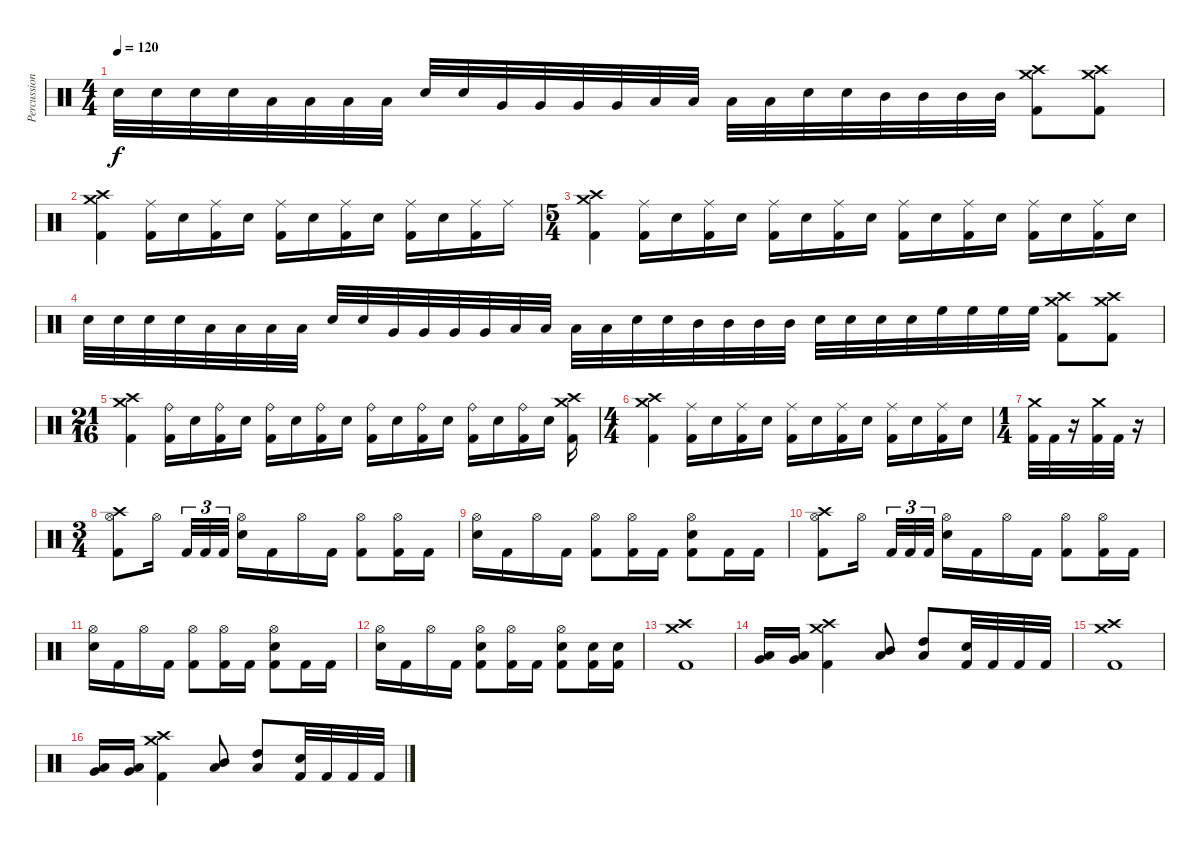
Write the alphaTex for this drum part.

\track ("Percussion" "Percussion") {instrument percussion}
\staff {score}
\articulation defaults
\ts (4 4)
\tempo 120
\clef neutral
\ks c "Electric Snare (hit)".32{dy f} "Electric Snare (hit)".32 "Electric Snare (hit)".32 "Electric Snare (hit)".32 "Low Floor Tom (hit)".32 "Low Floor Tom (hit)".32 "Low Floor Tom (hit)".32 "Low Floor Tom (hit)".32 "Electric Snare (hit)".32 "Electric Snare (hit)".32 "Very Low Tom (hit)".32 "Very Low Tom (hit)".32 "Very Low Tom (hit)".32 "Very Low Tom (hit)".32 "Low Tom (hit)".32 "Low Tom (hit)".32 "Low Tom (hit)".32 "Low Tom (hit)".32 "Electric Snare (hit)".32 "Electric Snare (hit)".32 "Mid Tom (hit)".32 "Mid Tom (hit)".32 "Mid Tom (hit)".32 "Mid Tom (hit)".32
("Kick (hit) 2" "Crash high (hit)" "Crash medium (hit)").8 ("Kick (hit) 2" "Crash high (hit)" "Crash medium (hit)").8 |
("Kick (hit) 2" "Crash high (hit)" "Crash medium (hit)").4 ("Kick (hit) 2" "Ride (middle)").16 "Electric Snare (hit)".16 ("Kick (hit) 2" "Ride (middle)").16 "Electric Snare (hit)".16 ("Kick (hit) 2" "Ride (middle)").16 "Electric Snare (hit)".16 ("Kick (hit) 2" "Ride (middle)").16 "Electric Snare (hit)".16 ("Kick (hit) 2" "Ride (middle)").16 "Electric Snare (hit)".16 ("Kick (hit) 2" "Ride (middle)").16 "Ride (middle)".16 |
\ts (5 4)
("Kick (hit) 2" "Crash high (hit)" "Crash medium (hit)").4 ("Kick (hit) 2" "Ride (middle)").16 "Electric Snare (hit)".16 ("Kick (hit) 2" "Ride (middle)").16 "Electric Snare (hit)".16 ("Kick (hit) 2" "Ride (middle)").16 "Electric Snare (hit)".16 ("Kick (hit) 2" "Ride (middle)").16 "Electric Snare (hit)".16 ("Kick (hit) 2" "Ride (middle)").16 "Electric Snare (hit)".16 ("Kick (hit) 2" "Ride (middle)").16 "Electric Snare (hit)".16 ("Kick (hit) 2" "Ride (middle)").16 "Electric Snare (hit)".16 ("Kick (hit) 2" "Ride (middle)").16 "Electric Snare (hit)".16 |
"Electric Snare (hit)".32 "Electric Snare (hit)".32 "Electric Snare (hit)".32 "Electric Snare (hit)".32 "Low Floor Tom (hit)".32 "Low Floor Tom (hit)".32 "Low Floor Tom (hit)".32 "Low Floor Tom (hit)".32 "Electric Snare (hit)".32 "Electric Snare (hit)".32 "Very Low Tom (hit)".32 "Very Low Tom (hit)".32 "Very Low Tom (hit)".32 "Very Low Tom (hit)".32 "Low Tom (hit)".32 "Low Tom (hit)".32 "Low Tom (hit)".32 "Low Tom (hit)".32 "Electric Snare (hit)".32 "Electric Snare (hit)".32 "Mid Tom (hit)".32 "Mid Tom (hit)".32 "Mid Tom (hit)".32 "Mid Tom (hit)".32 "Electric Snare (hit)".32 "Electric Snare (hit)".32 "Electric Snare (hit)".32 "Electric Snare (hit)".32 "High Floor Tom (hit)".32 "High Floor Tom (hit)".32 "High Floor Tom (hit)".32 "High Floor Tom (hit)".32 ("Kick (hit) 2" "Crash high (hit)" "Crash medium (hit)").8 ("Kick (hit) 2" "Crash medium (hit)" "Crash high (hit)").8 |
\ts (21 16)
("Kick (hit) 2" "Crash high (hit)" "Crash medium (hit)").4 ("Kick (hit) 2" "Ride (bell)").16 "Electric Snare (hit)".16 ("Kick (hit) 2" "Ride (bell)").16 "Electric Snare (hit)".16 ("Kick (hit) 2" "Ride (bell)").16 "Electric Snare (hit)".16 ("Kick (hit) 2" "Ride (bell)").16 "Electric Snare (hit)".16 ("Kick (hit) 2" "Ride (bell)").16 "Electric Snare (hit)".16 ("Kick (hit) 2" "Ride (bell)").16 "Electric Snare (hit)".16 ("Kick (hit) 2" "Ride (bell)").16 "Electric Snare (hit)".16 ("Kick (hit) 2" "Ride (bell)").16 "Electric Snare (hit)".16 ("Kick (hit) 2" "Crash high (hit)" "Crash medium (hit)").16 |
\ts (4 4)
("Kick (hit) 2" "Crash high (hit)" "Crash medium (hit)").4 ("Kick (hit) 2" "Ride (middle)").16 "Electric Snare (hit)".16 ("Kick (hit) 2" "Ride (middle)").16 "Electric Snare (hit)".16 ("Kick (hit) 2" "Ride (middle)").16 "Electric Snare (hit)".16 ("Kick (hit) 2" "Ride (middle)").16 "Electric Snare (hit)".16 ("Kick (hit) 2" "Ride (middle)").16 "Electric Snare (hit)".16 ("Kick (hit) 2" "Ride (middle)").16 "Electric Snare (hit)".16 |
\ts (1 4)
("Kick (hit) 2" "Crash medium (hit)").32 "Kick (hit) 2".32 r.16 ("Kick (hit) 2" "Crash medium (hit)").32 "Kick (hit) 2".32 r.16 |
\ts (3 4)
("Kick (hit) 2" "Hi-Hat (open)" "Crash high (hit)").8 "Hi-Hat (open)".16 "Kick (hit) 2".32{tu (3 2)} "Kick (hit) 2".32{tu (3 2)} "Kick (hit) 2".32{tu (3 2)} ("Electric Snare (hit)" "Hi-Hat (open)").16 "Kick (hit) 2".16 "Hi-Hat (open)".16 "Kick (hit) 2".16 ("Kick (hit) 2" "Hi-Hat (open)").8 ("Kick (hit) 2" "Hi-Hat (open)").16 "Kick (hit) 2".16 |
("Electric Snare (hit)" "Hi-Hat (open)").16 "Kick (hit) 2".16 "Hi-Hat (open)".16 "Kick (hit) 2".16 ("Kick (hit) 2" "Hi-Hat (open)").8 ("Kick (hit) 2" "Hi-Hat (open)").16 "Kick (hit) 2".16 ("Kick (hit) 2" "Electric Snare (hit)" "Hi-Hat (open)").8 "Kick (hit) 2".16 "Kick (hit) 2".16 |
("Kick (hit) 2" "Hi-Hat (open)" "Crash high (hit)").8 "Hi-Hat (open)".16 "Kick (hit) 2".32{tu (3 2)} "Kick (hit) 2".32{tu (3 2)} "Kick (hit) 2".32{tu (3 2)} ("Electric Snare (hit)" "Hi-Hat (open)").16 "Kick (hit) 2".16 "Hi-Hat (open)".16 "Kick (hit) 2".16 ("Kick (hit) 2" "Hi-Hat (open)").8 ("Kick (hit) 2" "Hi-Hat (open)").16 "Kick (hit) 2".16 |
("Electric Snare (hit)" "Hi-Hat (open)").16 "Kick (hit) 2".16 "Hi-Hat (open)".16 "Kick (hit) 2".16 ("Kick (hit) 2" "Hi-Hat (open)").8 ("Kick (hit) 2" "Hi-Hat (open)").16 "Kick (hit) 2".16 ("Kick (hit) 2" "Electric Snare (hit)" "Hi-Hat (open)").8 "Kick (hit) 2".16 "Kick (hit) 2".16 |
("Electric Snare (hit)" "Hi-Hat (open)").16 "Kick (hit) 2".16 "Hi-Hat (open)".16 "Kick (hit) 2".16 ("Kick (hit) 2" "Electric Snare (hit)" "Hi-Hat (open)").8 ("Kick (hit) 2" "Hi-Hat (open)").16 "Kick (hit) 2".16 ("Kick (hit) 2" "Electric Snare (hit)" "Hi-Hat (open)").8 ("Kick (hit) 2" "Electric Snare (hit)").16 ("Kick (hit) 2" "Electric Snare (hit)").16 |
("Kick (hit) 2" "Crash high (hit)" "Crash medium (hit)").1 |
("Low Tom (hit)" "Very Low Tom (hit)").16 ("Low Tom (hit)" "Very Low Tom (hit)").16 ("Kick (hit) 2" "Crash high (hit)" "Crash medium (hit)").4 ("Low Tom (hit)" "Mid Tom (hit)").8 ("Low Tom (hit)" "High Tom (hit)").8 ("Kick (hit) 2" "Electric Snare (hit)").32 "Kick (hit) 2".32 "Kick (hit) 2".32 "Kick (hit) 2".32 |
("Kick (hit) 2" "Crash high (hit)" "Crash medium (hit)").1 |
("Low Tom (hit)" "Very Low Tom (hit)").16 ("Low Tom (hit)" "Very Low Tom (hit)").16 ("Kick (hit) 2" "Crash high (hit)" "Crash medium (hit)").4 ("Low Tom (hit)" "Mid Tom (hit)").8 ("Low Tom (hit)" "High Tom (hit)").8 ("Kick (hit) 2" "Electric Snare (hit)").32 "Kick (hit) 2".32 "Kick (hit) 2".32 "Kick (hit) 2".32
